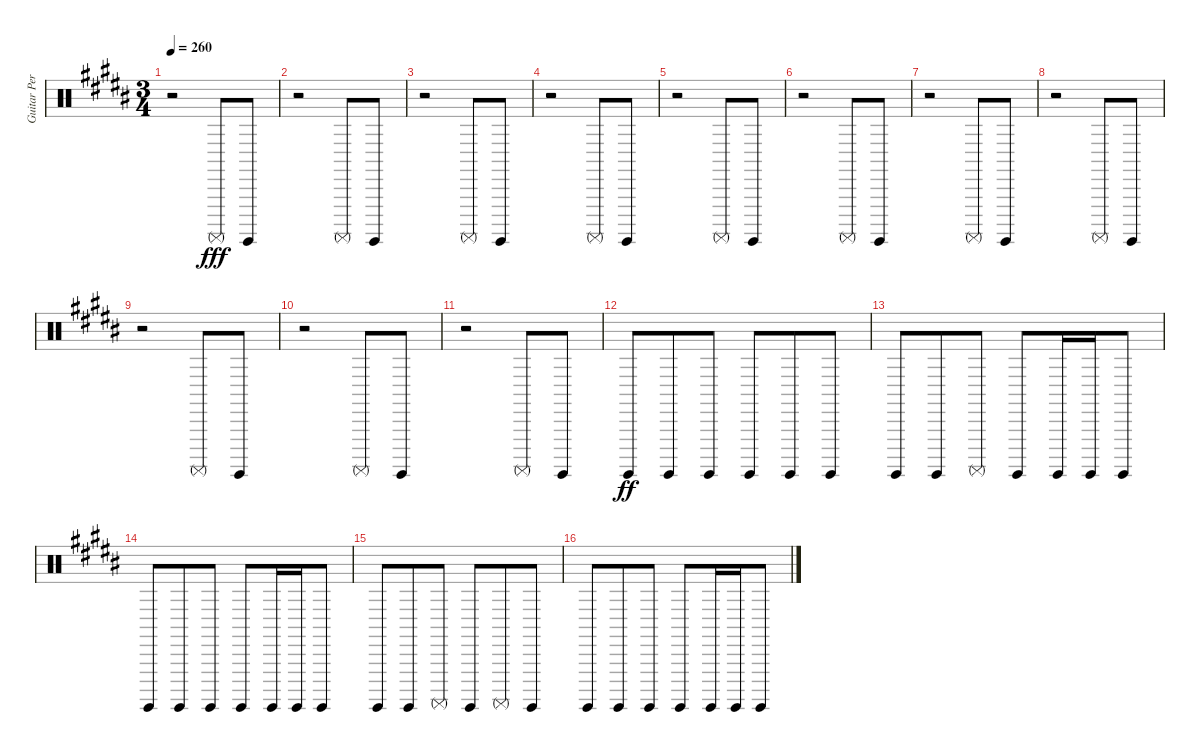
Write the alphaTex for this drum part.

\track ("Guitar Percussion Noises" "Guitar Per") {instrument percussion}
\staff {score}
\articulation defaults
\ts (3 4)
\tempo 260
\clef neutral
\ks b
r.2{dy fff} "Surdo (mute)".8 "Surdo (hit)".8 |
r.2 "Surdo (mute)".8 "Surdo (hit)".8 |
r.2 "Surdo (mute)".8 "Surdo (hit)".8 |
r.2 "Surdo (mute)".8 "Surdo (hit)".8 |
r.2 "Surdo (mute)".8 "Surdo (hit)".8 |
r.2 "Surdo (mute)".8 "Surdo (hit)".8 |
r.2 "Surdo (mute)".8 "Surdo (hit)".8 |
r.2 "Surdo (mute)".8 "Surdo (hit)".8 |
r.2 "Surdo (mute)".8 "Surdo (hit)".8 |
r.2 "Surdo (mute)".8 "Surdo (hit)".8 |
r.2 "Surdo (mute)".8 "Surdo (hit)".8 |
"Surdo (hit)".8{dy ff} "Surdo (hit)".8{beam merge} "Surdo (hit)".8{beam split} "Surdo (hit)".8{beam merge} "Surdo (hit)".8{beam merge} "Surdo (hit)".8 |
"Surdo (hit)".8 "Surdo (hit)".8{beam merge} "Surdo (mute)".8{beam split} "Surdo (hit)".8{beam merge} "Surdo (hit)".16 "Surdo (hit)".16 "Surdo (hit)".8 |
"Surdo (hit)".8 "Surdo (hit)".8{beam merge} "Surdo (hit)".8{beam split} "Surdo (hit)".8{beam merge} "Surdo (hit)".16 "Surdo (hit)".16 "Surdo (hit)".8 |
"Surdo (hit)".8 "Surdo (hit)".8{beam merge} "Surdo (mute)".8{beam split} "Surdo (hit)".8{beam merge} "Surdo (mute)".8{beam merge} "Surdo (hit)".8 |
"Surdo (hit)".8 "Surdo (hit)".8{beam merge} "Surdo (hit)".8{beam split} "Surdo (hit)".8{beam merge} "Surdo (hit)".16 "Surdo (hit)".16 "Surdo (hit)".8
